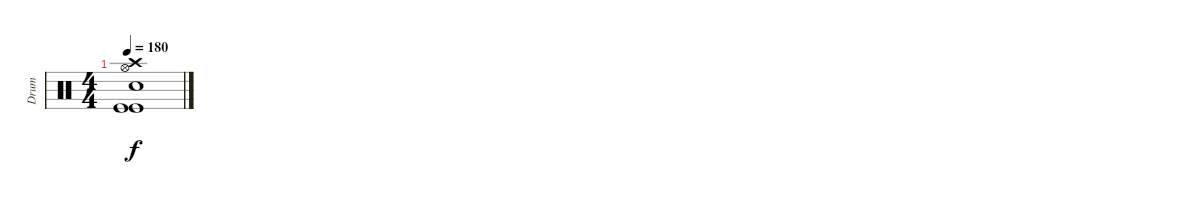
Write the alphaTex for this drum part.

\track ("Drum" "Drum") {instrument percussion}
\staff {score}
\articulation defaults
\ts (4 4)
\tempo 180
\clef neutral
\ks c
("Hi-Hat (open)" "Kick (hit)" "Kick (hit)" "Electric Snare (hit)" "Crash high (hit)").1{dy f}
